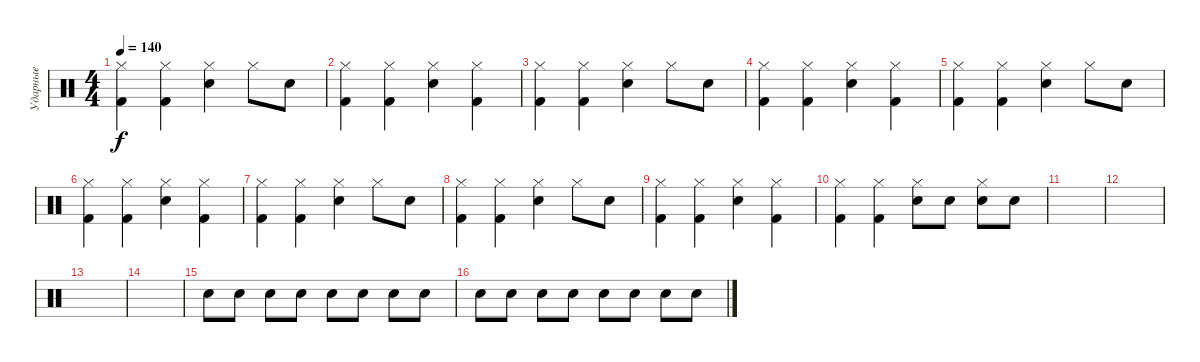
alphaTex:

\track ("Ударные" "Ударные") {instrument percussion}
\staff {score}
\articulation defaults
\ts (4 4)
\tempo 140
\clef neutral
\ks c
("Hi-Hat (closed)" "Kick (hit) 2").4{dy f} ("Hi-Hat (closed)" "Kick (hit) 2").4 ("Hi-Hat (closed)" "Electric Snare (hit)").4 "Hi-Hat (closed)".8 "Electric Snare (hit)".8 |
("Hi-Hat (closed)" "Kick (hit) 2").4 ("Hi-Hat (closed)" "Kick (hit) 2").4 ("Hi-Hat (closed)" "Electric Snare (hit)").4 ("Hi-Hat (closed)" "Kick (hit) 2").4 |
("Hi-Hat (closed)" "Kick (hit) 2").4 ("Hi-Hat (closed)" "Kick (hit) 2").4 ("Hi-Hat (closed)" "Electric Snare (hit)").4 "Hi-Hat (closed)".8 "Electric Snare (hit)".8 |
("Hi-Hat (closed)" "Kick (hit) 2").4 ("Hi-Hat (closed)" "Kick (hit) 2").4 ("Hi-Hat (closed)" "Electric Snare (hit)").4 ("Hi-Hat (closed)" "Kick (hit) 2").4 |
("Hi-Hat (closed)" "Kick (hit) 2").4 ("Hi-Hat (closed)" "Kick (hit) 2").4 ("Hi-Hat (closed)" "Electric Snare (hit)").4 "Hi-Hat (closed)".8 "Electric Snare (hit)".8 |
("Hi-Hat (closed)" "Kick (hit) 2").4 ("Hi-Hat (closed)" "Kick (hit) 2").4 ("Hi-Hat (closed)" "Electric Snare (hit)").4 ("Hi-Hat (closed)" "Kick (hit) 2").4 |
("Hi-Hat (closed)" "Kick (hit) 2").4 ("Hi-Hat (closed)" "Kick (hit) 2").4 ("Hi-Hat (closed)" "Electric Snare (hit)").4 "Hi-Hat (closed)".8 "Electric Snare (hit)".8 |
("Hi-Hat (closed)" "Kick (hit) 2").4 ("Hi-Hat (closed)" "Kick (hit) 2").4 ("Hi-Hat (closed)" "Electric Snare (hit)").4 "Hi-Hat (closed)".8 "Electric Snare (hit)".8 |
("Hi-Hat (closed)" "Kick (hit) 2").4 ("Hi-Hat (closed)" "Kick (hit) 2").4 ("Hi-Hat (closed)" "Electric Snare (hit)").4 ("Hi-Hat (closed)" "Kick (hit) 2").4 |
("Hi-Hat (closed)" "Kick (hit) 2").4 ("Hi-Hat (closed)" "Kick (hit) 2").4 ("Hi-Hat (closed)" "Electric Snare (hit)").8 "Electric Snare (hit)".8 ("Hi-Hat (closed)" "Electric Snare (hit)").8 "Electric Snare (hit)".8 |
|
|
|
|
"Electric Snare (hit)".8{volume 4} "Electric Snare (hit)".8 "Electric Snare (hit)".8 "Electric Snare (hit)".8 "Electric Snare (hit)".8{volume 16} "Electric Snare (hit)".8 "Electric Snare (hit)".8 "Electric Snare (hit)".8 |
"Electric Snare (hit)".8 "Electric Snare (hit)".8 "Electric Snare (hit)".8 "Electric Snare (hit)".8 "Electric Snare (hit)".8 "Electric Snare (hit)".8 "Electric Snare (hit)".8 "Electric Snare (hit)".8
